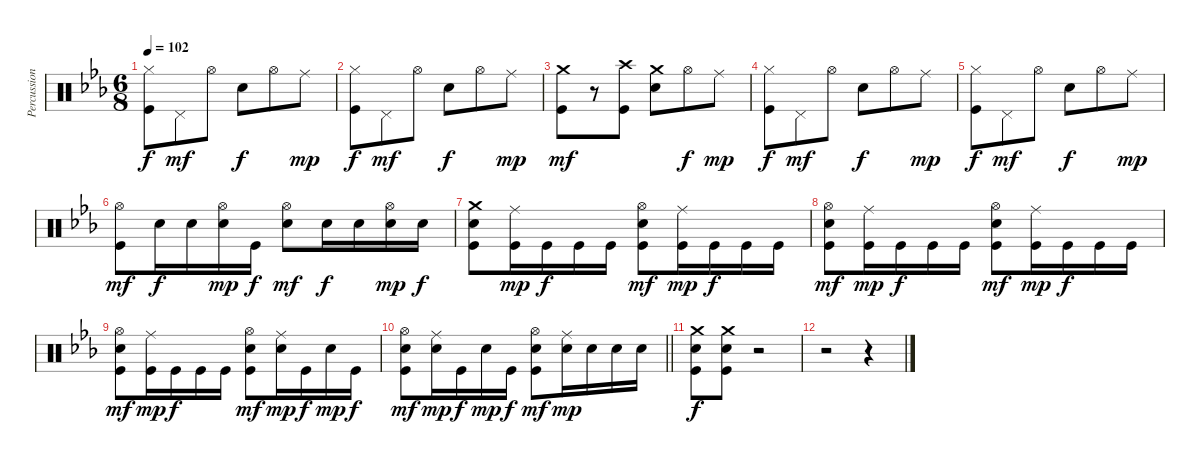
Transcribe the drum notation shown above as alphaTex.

\track ("Percussion" "Percussion") {instrument percussion}
\staff {score}
\articulation defaults
\ts (6 8)
\tempo 102
\clef neutral
\ks cminor
("Hi-Hat (closed)" "Kick (hit)").8{dy f} "Pedal Hi-Hat (hit)".8{dy mf} "Hi-Hat (open)".8 "Snare (hit) 2".8{dy f} "Hi-Hat (open)".8 "Ride (middle)".8{dy mp} |
("Hi-Hat (closed)" "Kick (hit)").8{dy f} "Pedal Hi-Hat (hit)".8{dy mf} "Hi-Hat (open)".8 "Snare (hit) 2".8{dy f} "Hi-Hat (open)".8 "Ride (middle)".8{dy mp} |
("Crash medium (hit)" "Kick (hit)").8{dy mf} r.8 ("Crash high (hit)" "Kick (hit)").8 ("Crash medium (hit)" "Snare (hit) 2").8 "Hi-Hat (open)".8{dy f} "Ride (middle)".8{dy mp} |
("Hi-Hat (closed)" "Kick (hit)").8{dy f} "Pedal Hi-Hat (hit)".8{dy mf} "Hi-Hat (open)".8 "Snare (hit) 2".8{dy f} "Hi-Hat (open)".8 "Ride (middle)".8{dy mp} |
("Hi-Hat (closed)" "Kick (hit)").8{dy f} "Pedal Hi-Hat (hit)".8{dy mf} "Hi-Hat (open)".8 "Snare (hit) 2".8{dy f} "Hi-Hat (open)".8 "Ride (middle)".8{dy mp} |
("Hi-Hat (open)" "Kick (hit)").8{dy mf} "Snare (hit) 2".16{dy f} "Snare (hit) 2".16 ("Hi-Hat (open)" "Snare (hit) 2").16{dy mp} "Kick (hit)".16{dy f} ("Hi-Hat (open)" "Snare (hit) 2").8{dy mf} "Snare (hit) 2".16{dy f} "Snare (hit) 2".16 ("Hi-Hat (open)" "Snare (hit) 2").16{dy mp} "Snare (hit) 2".16{dy f} |
("Crash medium (hit)" "Snare (hit) 2" "Kick (hit)").8 ("Ride (middle)" "Kick (hit)").16{dy mp} "Kick (hit)".16{dy f} "Kick (hit)".16 "Kick (hit)".16 ("Hi-Hat (open)" "Snare (hit) 2" "Kick (hit)").8{dy mf} ("Ride (middle)" "Kick (hit)").16{dy mp} "Kick (hit)".16{dy f} "Kick (hit)".16 "Kick (hit)".16 |
("Hi-Hat (open)" "Snare (hit) 2" "Kick (hit)").8{dy mf} ("Ride (middle)" "Kick (hit)").16{dy mp} "Kick (hit)".16{dy f} "Kick (hit)".16 "Kick (hit)".16 ("Hi-Hat (open)" "Snare (hit) 2" "Kick (hit)").8{dy mf} ("Ride (middle)" "Kick (hit)").16{dy mp} "Kick (hit)".16{dy f} "Kick (hit)".16 "Kick (hit)".16 |
("Hi-Hat (open)" "Snare (hit) 2" "Kick (hit)").8{dy mf} ("Ride (middle)" "Kick (hit)").16{dy mp} "Kick (hit)".16{dy f} "Kick (hit)".16 "Kick (hit)".16 ("Hi-Hat (open)" "Snare (hit) 2" "Kick (hit)").8{dy mf} ("Ride (middle)" "Snare (hit) 2").16{dy mp} "Kick (hit)".16{dy f} "Snare (hit) 2".16{dy mp} "Kick (hit)".16{dy f} |
\barLineRight lightlight
("Hi-Hat (open)" "Snare (hit) 2" "Kick (hit)").8{dy mf} ("Ride (middle)" "Snare (hit) 2").16{dy mp} "Kick (hit)".16{dy f} "Snare (hit) 2".16{dy mp} "Kick (hit)".16{dy f} ("Hi-Hat (open)" "Snare (hit) 2" "Kick (hit)").8{dy mf} ("Ride (middle)" "Snare (hit) 2").16{dy mp} "Snare (hit) 2".16 "Snare (hit) 2".16 "Snare (hit) 2".16 |
("Crash medium (hit)" "Snare (hit) 2" "Kick (hit)").8{dy f} ("Crash medium (hit)" "Snare (hit) 2" "Kick (hit)").8 r.2 |
r.2 r.4
